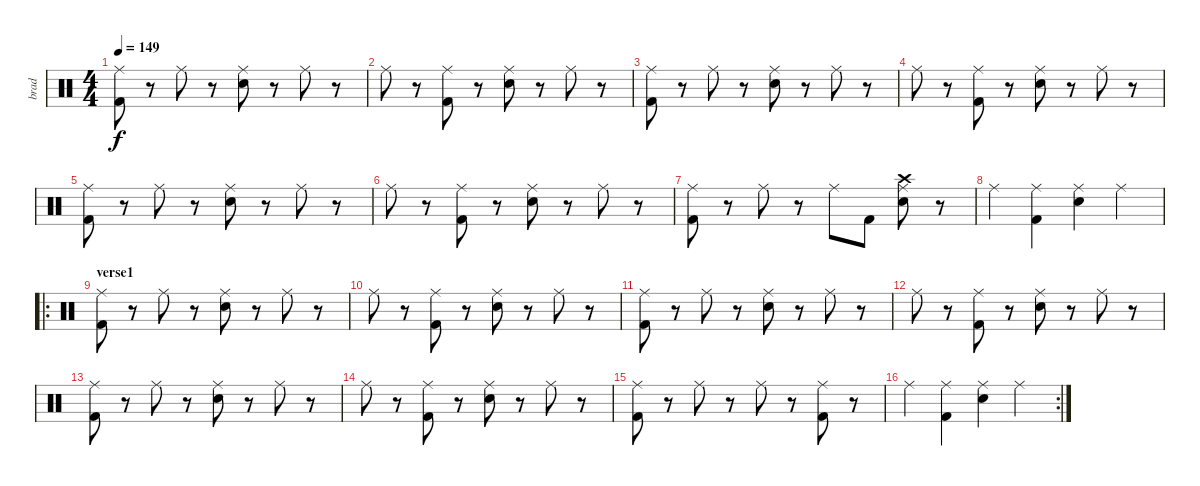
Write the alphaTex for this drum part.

\track ("brad" "brad") {instrument percussion}
\staff {score}
\articulation defaults
\ts (4 4)
\tempo 149
\clef neutral
\ks c
("Ride (middle)" "Kick (hit) 2").8{dy f} r.8 "Ride (middle)".8 r.8 ("Ride (middle)" "Electric Snare (hit)").8 r.8 "Ride (middle)".8 r.8 |
"Ride (middle)".8 r.8 ("Ride (middle)" "Kick (hit) 2").8 r.8 ("Ride (middle)" "Electric Snare (hit)").8 r.8 "Ride (middle)".8 r.8 |
("Ride (middle)" "Kick (hit) 2").8 r.8 "Ride (middle)".8 r.8 ("Ride (middle)" "Electric Snare (hit)").8 r.8 "Ride (middle)".8 r.8 |
"Ride (middle)".8 r.8 ("Ride (middle)" "Kick (hit) 2").8 r.8 ("Ride (middle)" "Electric Snare (hit)").8 r.8 "Ride (middle)".8 r.8 |
("Ride (middle)" "Kick (hit) 2").8 r.8 "Ride (middle)".8 r.8 ("Ride (middle)" "Electric Snare (hit)").8 r.8 "Ride (middle)".8 r.8 |
"Ride (middle)".8 r.8 ("Ride (middle)" "Kick (hit) 2").8 r.8 ("Ride (middle)" "Electric Snare (hit)").8 r.8 "Ride (middle)".8 r.8 |
("Ride (middle)" "Kick (hit) 2").8 r.8 "Ride (middle)".8 r.8 "Ride (middle)".8 "Kick (hit) 2".8 ("Crash high (hit)" "Ride (middle)" "Electric Snare (hit)").8 r.8 |
"Ride (middle)".4 ("Ride (middle)" "Kick (hit) 2").4 ("Ride (middle)" "Electric Snare (hit)").4 "Ride (middle)".4 |
\ro
\section ("" "verse1")
("Ride (middle)" "Kick (hit) 2").8 r.8 "Ride (middle)".8 r.8 ("Ride (middle)" "Electric Snare (hit)").8 r.8 "Ride (middle)".8 r.8 |
"Ride (middle)".8 r.8 ("Ride (middle)" "Kick (hit) 2").8 r.8 ("Ride (middle)" "Electric Snare (hit)").8 r.8 "Ride (middle)".8 r.8 |
("Ride (middle)" "Kick (hit) 2").8 r.8 "Ride (middle)".8 r.8 ("Ride (middle)" "Electric Snare (hit)").8 r.8 "Ride (middle)".8 r.8 |
"Ride (middle)".8 r.8 ("Ride (middle)" "Kick (hit) 2").8 r.8 ("Ride (middle)" "Electric Snare (hit)").8 r.8 "Ride (middle)".8 r.8 |
("Ride (middle)" "Kick (hit) 2").8 r.8 "Ride (middle)".8 r.8 ("Ride (middle)" "Electric Snare (hit)").8 r.8 "Ride (middle)".8 r.8 |
"Ride (middle)".8 r.8 ("Ride (middle)" "Kick (hit) 2").8 r.8 ("Ride (middle)" "Electric Snare (hit)").8 r.8 "Ride (middle)".8 r.8 |
("Ride (middle)" "Kick (hit) 2").8 r.8 "Ride (middle)".8 r.8 "Ride (middle)".8 r.8 ("Ride (middle)" "Kick (hit) 2").8 r.8 |
\rc 2 "Ride (middle)".4
("Ride (middle)" "Kick (hit) 2").4 ("Ride (middle)" "Electric Snare (hit)").4 "Ride (middle)".4
